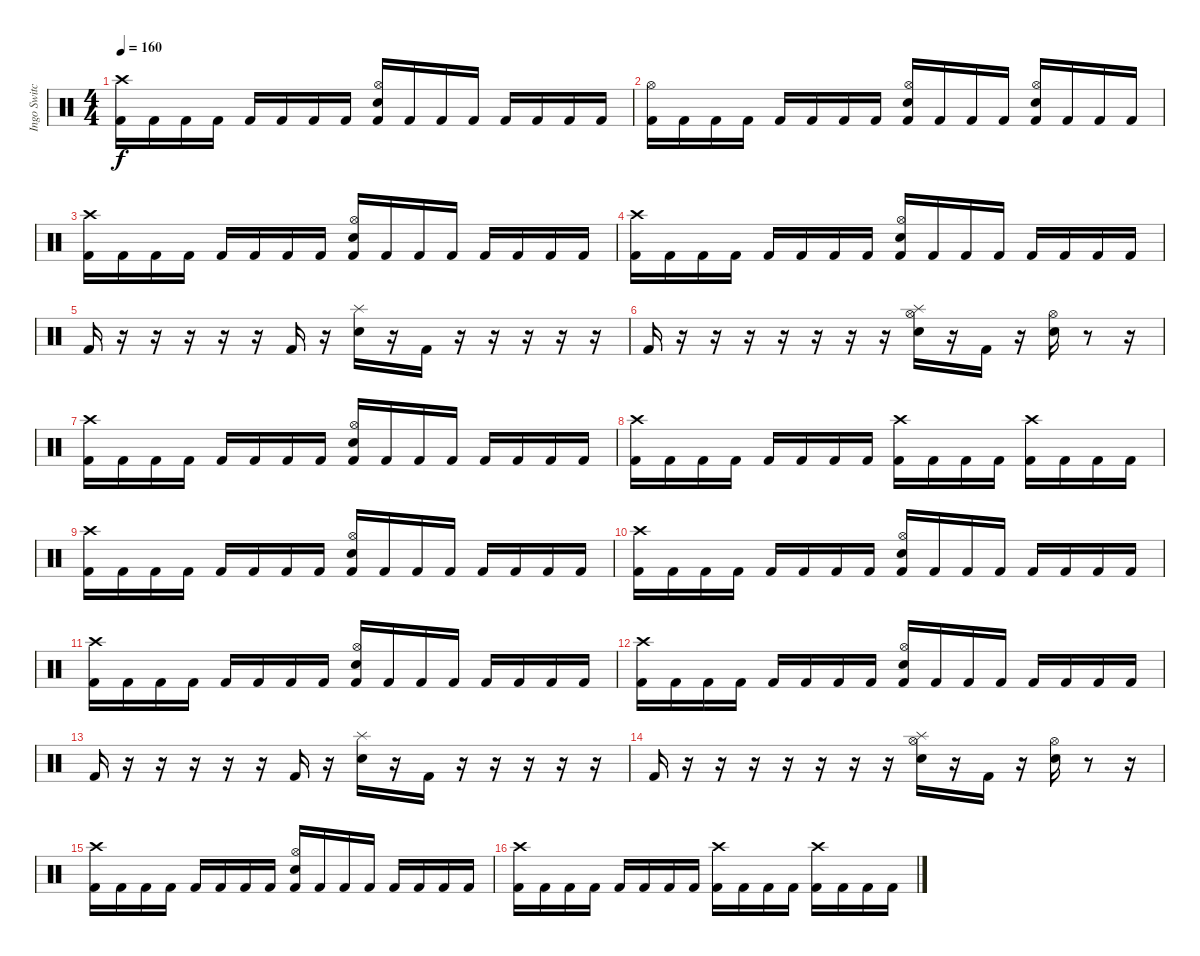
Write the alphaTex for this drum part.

\track ("Ingo Switchenberg" "Ingo Switc") {instrument percussion}
\staff {score}
\articulation defaults
\ts (4 4)
\tempo 160
\clef neutral
\ks c
("Crash high (hit)" "Kick (hit) 2").16{dy f} "Kick (hit) 2".16 "Kick (hit) 2".16 "Kick (hit) 2".16 "Kick (hit) 2".16 "Kick (hit) 2".16 "Kick (hit) 2".16 "Kick (hit) 2".16 ("Hi-Hat (open)" "Snare (hit) 2" "Kick (hit) 2").16 "Kick (hit) 2".16 "Kick (hit) 2".16 "Kick (hit) 2".16 "Kick (hit) 2".16 "Kick (hit) 2".16 "Kick (hit) 2".16 "Kick (hit) 2".16 |
("Hi-Hat (open)" "Kick (hit) 2").16 "Kick (hit) 2".16 "Kick (hit) 2".16 "Kick (hit) 2".16 "Kick (hit) 2".16 "Kick (hit) 2".16 "Kick (hit) 2".16 "Kick (hit) 2".16 ("Hi-Hat (open)" "Snare (hit) 2" "Kick (hit) 2").16 "Kick (hit) 2".16 "Kick (hit) 2".16 "Kick (hit) 2".16 ("Hi-Hat (open)" "Kick (hit) 2" "Snare (hit) 2").16 "Kick (hit) 2".16 "Kick (hit) 2".16 "Kick (hit) 2".16 |
("Crash high (hit)" "Kick (hit) 2").16 "Kick (hit) 2".16 "Kick (hit) 2".16 "Kick (hit) 2".16 "Kick (hit) 2".16 "Kick (hit) 2".16 "Kick (hit) 2".16 "Kick (hit) 2".16 ("Hi-Hat (open)" "Snare (hit) 2" "Kick (hit) 2").16 "Kick (hit) 2".16 "Kick (hit) 2".16 "Kick (hit) 2".16 "Kick (hit) 2".16 "Kick (hit) 2".16 "Kick (hit) 2".16 "Kick (hit) 2".16 |
("Crash high (hit)" "Kick (hit) 2").16 "Kick (hit) 2".16 "Kick (hit) 2".16 "Kick (hit) 2".16 "Kick (hit) 2".16 "Kick (hit) 2".16 "Kick (hit) 2".16 "Kick (hit) 2".16 ("Hi-Hat (open)" "Snare (hit) 2" "Kick (hit) 2").16 "Kick (hit) 2".16 "Kick (hit) 2".16 "Kick (hit) 2".16 "Kick (hit) 2".16 "Kick (hit) 2".16 "Kick (hit) 2".16 "Kick (hit) 2".16 |
"Kick (hit) 2".16 r.16 r.16 r.16 r.16 r.16 "Kick (hit) 2".16 r.16 ("Snare (hit) 2" "Splash (hit)").16 r.16 "Kick (hit) 2".16 r.16 r.16 r.16 r.16 r.16 |
"Kick (hit) 2".16 r.16 r.16 r.16 r.16 r.16 r.16 r.16 ("Hi-Hat (open)" "Snare (hit) 2" "Splash (hit)").16 r.16 "Kick (hit) 2".16 r.16 ("Hi-Hat (open)" "Snare (hit) 2").16 r.8 r.16 |
("Crash high (hit)" "Kick (hit) 2").16 "Kick (hit) 2".16 "Kick (hit) 2".16 "Kick (hit) 2".16 "Kick (hit) 2".16 "Kick (hit) 2".16 "Kick (hit) 2".16 "Kick (hit) 2".16 ("Hi-Hat (open)" "Snare (hit) 2" "Kick (hit) 2").16 "Kick (hit) 2".16 "Kick (hit) 2".16 "Kick (hit) 2".16 "Kick (hit) 2".16 "Kick (hit) 2".16 "Kick (hit) 2".16 "Kick (hit) 2".16 |
("Kick (hit) 2" "Crash high (hit)").16 "Kick (hit) 2".16 "Kick (hit) 2".16 "Kick (hit) 2".16 "Kick (hit) 2".16 "Kick (hit) 2".16 "Kick (hit) 2".16 "Kick (hit) 2".16 ("Kick (hit) 2" "Crash high (hit)").16 "Kick (hit) 2".16 "Kick (hit) 2".16 "Kick (hit) 2".16 ("Kick (hit) 2" "Crash high (hit)").16 "Kick (hit) 2".16 "Kick (hit) 2".16 "Kick (hit) 2".16 |
("Crash high (hit)" "Kick (hit) 2").16 "Kick (hit) 2".16 "Kick (hit) 2".16 "Kick (hit) 2".16 "Kick (hit) 2".16 "Kick (hit) 2".16 "Kick (hit) 2".16 "Kick (hit) 2".16 ("Hi-Hat (open)" "Snare (hit) 2" "Kick (hit) 2").16 "Kick (hit) 2".16 "Kick (hit) 2".16 "Kick (hit) 2".16 "Kick (hit) 2".16 "Kick (hit) 2".16 "Kick (hit) 2".16 "Kick (hit) 2".16 |
("Crash high (hit)" "Kick (hit) 2").16 "Kick (hit) 2".16 "Kick (hit) 2".16 "Kick (hit) 2".16 "Kick (hit) 2".16 "Kick (hit) 2".16 "Kick (hit) 2".16 "Kick (hit) 2".16 ("Hi-Hat (open)" "Snare (hit) 2" "Kick (hit) 2").16 "Kick (hit) 2".16 "Kick (hit) 2".16 "Kick (hit) 2".16 "Kick (hit) 2".16 "Kick (hit) 2".16 "Kick (hit) 2".16 "Kick (hit) 2".16 |
("Crash high (hit)" "Kick (hit) 2").16 "Kick (hit) 2".16 "Kick (hit) 2".16 "Kick (hit) 2".16 "Kick (hit) 2".16 "Kick (hit) 2".16 "Kick (hit) 2".16 "Kick (hit) 2".16 ("Hi-Hat (open)" "Snare (hit) 2" "Kick (hit) 2").16 "Kick (hit) 2".16 "Kick (hit) 2".16 "Kick (hit) 2".16 "Kick (hit) 2".16 "Kick (hit) 2".16 "Kick (hit) 2".16 "Kick (hit) 2".16 |
("Crash high (hit)" "Kick (hit) 2").16 "Kick (hit) 2".16 "Kick (hit) 2".16 "Kick (hit) 2".16 "Kick (hit) 2".16 "Kick (hit) 2".16 "Kick (hit) 2".16 "Kick (hit) 2".16 ("Hi-Hat (open)" "Snare (hit) 2" "Kick (hit) 2").16 "Kick (hit) 2".16 "Kick (hit) 2".16 "Kick (hit) 2".16 "Kick (hit) 2".16 "Kick (hit) 2".16 "Kick (hit) 2".16 "Kick (hit) 2".16 |
"Kick (hit) 2".16 r.16 r.16 r.16 r.16 r.16 "Kick (hit) 2".16 r.16 ("Snare (hit) 2" "Splash (hit)").16 r.16 "Kick (hit) 2".16 r.16 r.16 r.16 r.16 r.16 |
"Kick (hit) 2".16 r.16 r.16 r.16 r.16 r.16 r.16 r.16 ("Hi-Hat (open)" "Snare (hit) 2" "Splash (hit)").16 r.16 "Kick (hit) 2".16 r.16 ("Hi-Hat (open)" "Snare (hit) 2").16 r.8 r.16 |
("Crash high (hit)" "Kick (hit) 2").16 "Kick (hit) 2".16 "Kick (hit) 2".16 "Kick (hit) 2".16 "Kick (hit) 2".16 "Kick (hit) 2".16 "Kick (hit) 2".16 "Kick (hit) 2".16 ("Hi-Hat (open)" "Snare (hit) 2" "Kick (hit) 2").16 "Kick (hit) 2".16 "Kick (hit) 2".16 "Kick (hit) 2".16 "Kick (hit) 2".16 "Kick (hit) 2".16 "Kick (hit) 2".16 "Kick (hit) 2".16 |
("Kick (hit) 2" "Crash high (hit)").16 "Kick (hit) 2".16 "Kick (hit) 2".16 "Kick (hit) 2".16 "Kick (hit) 2".16 "Kick (hit) 2".16 "Kick (hit) 2".16 "Kick (hit) 2".16 ("Kick (hit) 2" "Crash high (hit)").16 "Kick (hit) 2".16 "Kick (hit) 2".16 "Kick (hit) 2".16 ("Kick (hit) 2" "Crash high (hit)").16 "Kick (hit) 2".16 "Kick (hit) 2".16 "Kick (hit) 2".16
